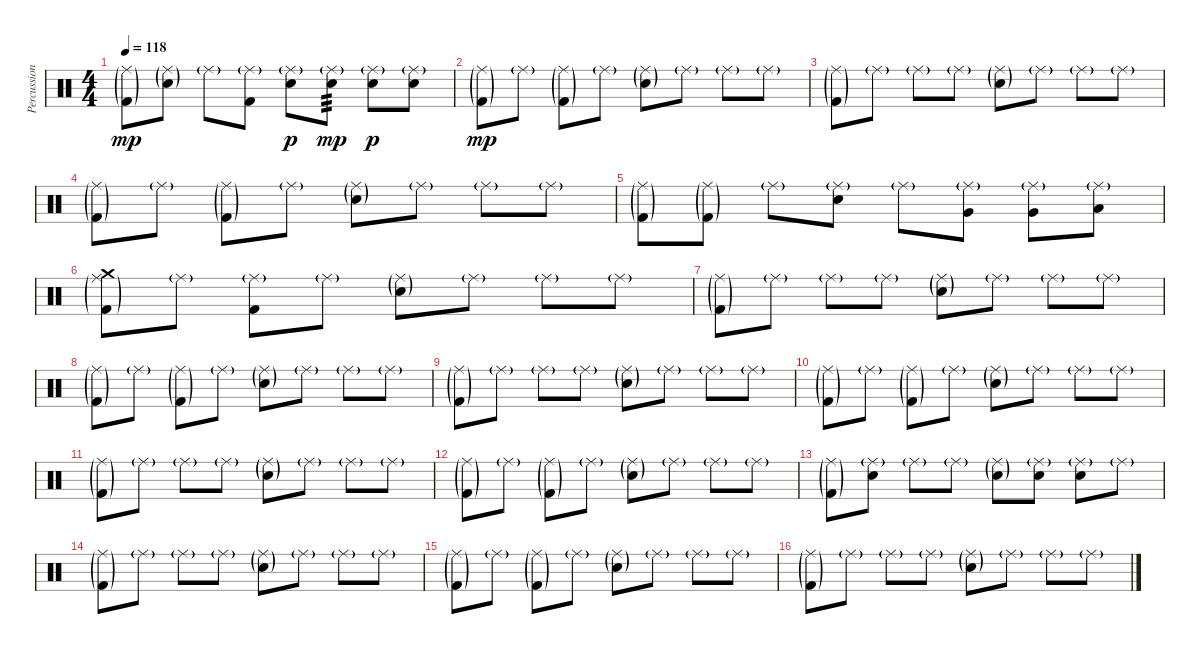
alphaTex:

\track ("Percussion" "Percussion") {instrument percussion}
\staff {score}
\articulation defaults
\ts (4 4)
\tempo 118
\clef neutral
\ks c
("Ride (middle)"{g} "Kick (hit) 2"{g}).8{dy mp} ("Ride (middle)"{g} "Electric Snare (hit)"{g}).8 "Ride (middle)"{g}.8 ("Ride (middle)"{g} "Kick (hit) 2").8 ("Ride (middle)"{g} "Electric Snare (hit)").8{dy p} ("Ride (middle)"{g} "Electric Snare (hit)").8{tp 3 dy mp} ("Ride (middle)"{g} "Electric Snare (hit)").8{dy p} ("Ride (middle)"{g} "Electric Snare (hit)").8 |
("Ride (middle)"{g} "Kick (hit) 2"{g}).8{dy mp} "Ride (middle)"{g}.8 ("Ride (middle)"{g} "Kick (hit) 2"{g}).8 "Ride (middle)"{g}.8 ("Ride (middle)"{g} "Electric Snare (hit)"{g}).8 "Ride (middle)"{g}.8 "Ride (middle)"{g}.8 "Ride (middle)"{g}.8 |
("Ride (middle)"{g} "Kick (hit) 2"{g}).8 "Ride (middle)"{g}.8 "Ride (middle)"{g}.8 "Ride (middle)"{g}.8 ("Ride (middle)"{g} "Electric Snare (hit)"{g}).8 "Ride (middle)"{g}.8 "Ride (middle)"{g}.8 "Ride (middle)"{g}.8 |
("Ride (middle)"{g} "Kick (hit) 2"{g}).8 "Ride (middle)"{g}.8 ("Ride (middle)"{g} "Kick (hit) 2"{g}).8 "Ride (middle)"{g}.8 ("Ride (middle)"{g} "Electric Snare (hit)"{g}).8 "Ride (middle)"{g}.8 "Ride (middle)"{g}.8 "Ride (middle)"{g}.8 |
("Ride (middle)"{g} "Kick (hit) 2"{g}).8 ("Ride (middle)"{g} "Kick (hit) 2"{g}).8 "Ride (middle)"{g}.8 ("Ride (middle)"{g} "Electric Snare (hit)").8 "Ride (middle)"{g}.8 ("Ride (middle)"{g} "Very Low Tom (hit)").8 ("Ride (middle)"{g} "Very Low Tom (hit)").8 ("Ride (middle)"{g} "Low Floor Tom (hit)").8 |
("Crash medium (hit)" "Ride (middle)"{g} "Kick (hit) 2"{g}).8 "Ride (middle)"{g}.8 ("Ride (middle)"{g} "Kick (hit) 2").8 "Ride (middle)"{g}.8 ("Ride (middle)"{g} "Electric Snare (hit)"{g}).8 "Ride (middle)"{g}.8 "Ride (middle)"{g}.8 "Ride (middle)"{g}.8 |
("Ride (middle)"{g} "Kick (hit) 2"{g}).8 "Ride (middle)"{g}.8 "Ride (middle)"{g}.8 "Ride (middle)"{g}.8 ("Ride (middle)"{g} "Electric Snare (hit)"{g}).8 "Ride (middle)"{g}.8 "Ride (middle)"{g}.8 "Ride (middle)"{g}.8 |
("Ride (middle)"{g} "Kick (hit) 2"{g}).8 "Ride (middle)"{g}.8 ("Ride (middle)"{g} "Kick (hit) 2"{g}).8 "Ride (middle)"{g}.8 ("Ride (middle)"{g} "Electric Snare (hit)"{g}).8 "Ride (middle)"{g}.8 "Ride (middle)"{g}.8 "Ride (middle)"{g}.8 |
("Ride (middle)"{g} "Kick (hit) 2"{g}).8 "Ride (middle)"{g}.8 "Ride (middle)"{g}.8 "Ride (middle)"{g}.8 ("Ride (middle)"{g} "Electric Snare (hit)"{g}).8 "Ride (middle)"{g}.8 "Ride (middle)"{g}.8 "Ride (middle)"{g}.8 |
("Ride (middle)"{g} "Kick (hit) 2"{g}).8 "Ride (middle)"{g}.8 ("Ride (middle)"{g} "Kick (hit) 2"{g}).8 "Ride (middle)"{g}.8 ("Ride (middle)"{g} "Electric Snare (hit)"{g}).8 "Ride (middle)"{g}.8 "Ride (middle)"{g}.8 "Ride (middle)"{g}.8 |
("Ride (middle)"{g} "Kick (hit) 2"{g}).8 "Ride (middle)"{g}.8 "Ride (middle)"{g}.8 "Ride (middle)"{g}.8 ("Ride (middle)"{g} "Electric Snare (hit)"{g}).8 "Ride (middle)"{g}.8 "Ride (middle)"{g}.8 "Ride (middle)"{g}.8 |
("Ride (middle)"{g} "Kick (hit) 2"{g}).8 "Ride (middle)"{g}.8 ("Ride (middle)"{g} "Kick (hit) 2"{g}).8 "Ride (middle)"{g}.8 ("Ride (middle)"{g} "Electric Snare (hit)"{g}).8 "Ride (middle)"{g}.8 "Ride (middle)"{g}.8 "Ride (middle)"{g}.8 |
("Ride (middle)"{g} "Kick (hit) 2"{g}).8 ("Ride (middle)"{g} "Electric Snare (hit)").8 "Ride (middle)"{g}.8 "Ride (middle)"{g}.8 ("Ride (middle)"{g} "Electric Snare (hit)"{g}).8 ("Ride (middle)"{g} "Electric Snare (hit)").8 ("Ride (middle)"{g} "Electric Snare (hit)").8 "Ride (middle)"{g}.8 |
("Ride (middle)"{g} "Kick (hit) 2"{g}).8 "Ride (middle)"{g}.8 "Ride (middle)"{g}.8 "Ride (middle)"{g}.8 ("Ride (middle)"{g} "Electric Snare (hit)"{g}).8 "Ride (middle)"{g}.8 "Ride (middle)"{g}.8 "Ride (middle)"{g}.8 |
("Ride (middle)"{g} "Kick (hit) 2"{g}).8 "Ride (middle)"{g}.8 ("Ride (middle)"{g} "Kick (hit) 2"{g}).8 "Ride (middle)"{g}.8 ("Ride (middle)"{g} "Electric Snare (hit)"{g}).8 "Ride (middle)"{g}.8 "Ride (middle)"{g}.8 "Ride (middle)"{g}.8 |
("Ride (middle)"{g} "Kick (hit) 2"{g}).8 "Ride (middle)"{g}.8 "Ride (middle)"{g}.8 "Ride (middle)"{g}.8 ("Ride (middle)"{g} "Electric Snare (hit)"{g}).8 "Ride (middle)"{g}.8 "Ride (middle)"{g}.8 "Ride (middle)"{g}.8
